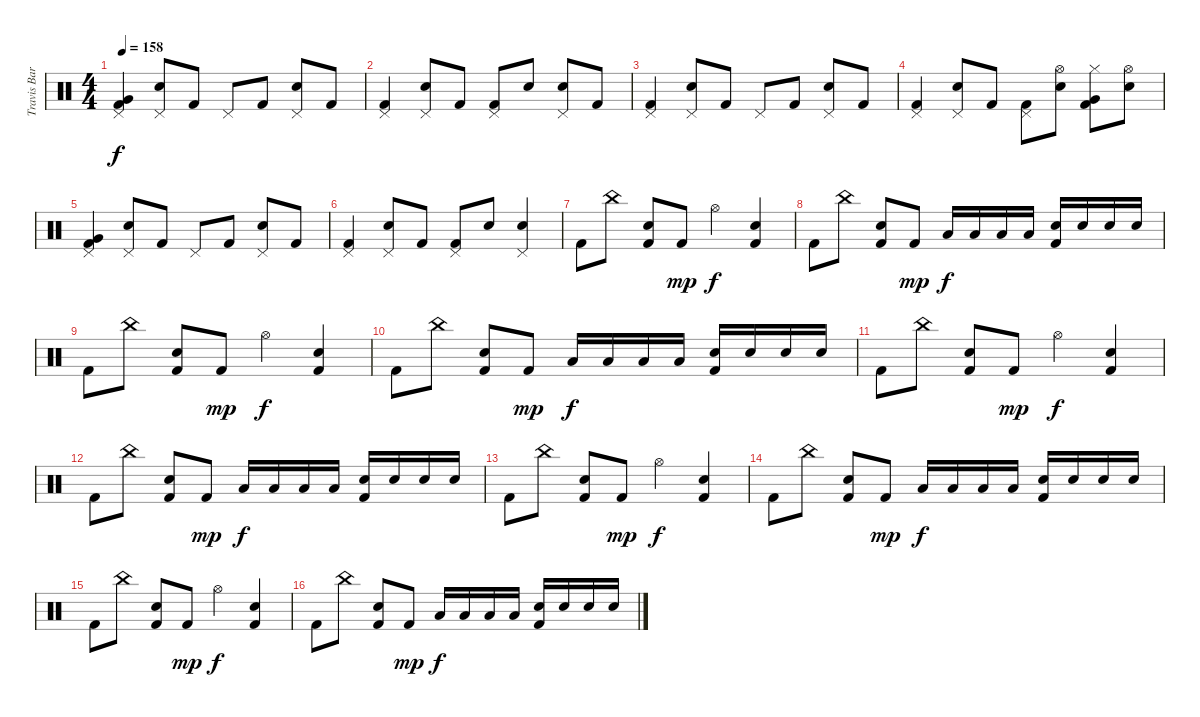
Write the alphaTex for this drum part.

\track ("Travis Barker - Drums" "Travis Bar") {instrument percussion}
\staff {score}
\articulation defaults
\ts (4 4)
\tempo 158
\clef neutral
\ks c
("Pedal Hi-Hat (hit)" "Very Low Tom (hit)" "Kick (hit) 2").4{dy f} ("Pedal Hi-Hat (hit)" "Electric Snare (hit)").8 "Kick (hit) 2".8 "Pedal Hi-Hat (hit)".8 "Kick (hit) 2".8 ("Pedal Hi-Hat (hit)" "Electric Snare (hit)").8 "Kick (hit) 2".8 |
("Pedal Hi-Hat (hit)" "Kick (hit) 2").4 ("Pedal Hi-Hat (hit)" "Electric Snare (hit)").8 "Kick (hit) 2".8 ("Pedal Hi-Hat (hit)" "Kick (hit) 2").8 "Electric Snare (hit)".8 ("Pedal Hi-Hat (hit)" "Electric Snare (hit)").8 "Kick (hit) 2".8 |
("Pedal Hi-Hat (hit)" "Kick (hit) 2").4 ("Pedal Hi-Hat (hit)" "Electric Snare (hit)").8 "Kick (hit) 2".8 "Pedal Hi-Hat (hit)".8 "Kick (hit) 2".8 ("Pedal Hi-Hat (hit)" "Electric Snare (hit)").8 "Kick (hit) 2".8 |
("Pedal Hi-Hat (hit)" "Kick (hit) 2").4 ("Pedal Hi-Hat (hit)" "Electric Snare (hit)").8 "Kick (hit) 2".8 ("Pedal Hi-Hat (hit)" "Kick (hit) 2").8 ("Hi-Hat (open)" "Electric Snare (hit)").8 ("Hi-Hat (closed)" "Very Low Tom (hit)" "Kick (hit) 2").8 ("Hi-Hat (open)" "Electric Snare (hit)").8 |
("Pedal Hi-Hat (hit)" "Very Low Tom (hit)" "Kick (hit) 2").4 ("Pedal Hi-Hat (hit)" "Electric Snare (hit)").8 "Kick (hit) 2".8 "Pedal Hi-Hat (hit)".8 "Kick (hit) 2".8 ("Pedal Hi-Hat (hit)" "Electric Snare (hit)").8 "Kick (hit) 2".8 |
("Pedal Hi-Hat (hit)" "Kick (hit) 2").4 ("Pedal Hi-Hat (hit)" "Electric Snare (hit)").8 "Kick (hit) 2".8 ("Pedal Hi-Hat (hit)" "Kick (hit) 2").8 "Electric Snare (hit)".8 ("Pedal Hi-Hat (hit)" "Electric Snare (hit)").4 |
"Kick (hit) 2".8 "China (hit)".8 ("Electric Snare (hit)" "Kick (hit) 2").8 "Kick (hit) 2".8{dy mp} "Hi-Hat (open)".4{dy f} ("Electric Snare (hit)" "Kick (hit) 2").4 |
"Kick (hit) 2".8 "China (hit)".8 ("Electric Snare (hit)" "Kick (hit) 2").8 "Kick (hit) 2".8{dy mp} "Low Tom (hit)".16{dy f} "Low Tom (hit)".16 "Low Tom (hit)".16 "Low Tom (hit)".16 ("Electric Snare (hit)" "Kick (hit) 2").16 "Electric Snare (hit)".16 "Electric Snare (hit)".16 "Electric Snare (hit)".16 |
"Kick (hit) 2".8 "China (hit)".8 ("Electric Snare (hit)" "Kick (hit) 2").8 "Kick (hit) 2".8{dy mp} "Hi-Hat (open)".4{dy f} ("Electric Snare (hit)" "Kick (hit) 2").4 |
"Kick (hit) 2".8 "China (hit)".8 ("Electric Snare (hit)" "Kick (hit) 2").8 "Kick (hit) 2".8{dy mp} "Low Tom (hit)".16{dy f} "Low Tom (hit)".16 "Low Tom (hit)".16 "Low Tom (hit)".16 ("Electric Snare (hit)" "Kick (hit) 2").16 "Electric Snare (hit)".16 "Electric Snare (hit)".16 "Electric Snare (hit)".16 |
"Kick (hit) 2".8 "China (hit)".8 ("Electric Snare (hit)" "Kick (hit) 2").8 "Kick (hit) 2".8{dy mp} "Hi-Hat (open)".4{dy f} ("Electric Snare (hit)" "Kick (hit) 2").4 |
"Kick (hit) 2".8 "China (hit)".8 ("Electric Snare (hit)" "Kick (hit) 2").8 "Kick (hit) 2".8{dy mp} "Low Tom (hit)".16{dy f} "Low Tom (hit)".16 "Low Tom (hit)".16 "Low Tom (hit)".16 ("Electric Snare (hit)" "Kick (hit) 2").16 "Electric Snare (hit)".16 "Electric Snare (hit)".16 "Electric Snare (hit)".16 |
"Kick (hit) 2".8 "China (hit)".8 ("Electric Snare (hit)" "Kick (hit) 2").8 "Kick (hit) 2".8{dy mp} "Hi-Hat (open)".4{dy f} ("Electric Snare (hit)" "Kick (hit) 2").4 |
"Kick (hit) 2".8 "China (hit)".8 ("Electric Snare (hit)" "Kick (hit) 2").8 "Kick (hit) 2".8{dy mp} "Low Tom (hit)".16{dy f} "Low Tom (hit)".16 "Low Tom (hit)".16 "Low Tom (hit)".16 ("Electric Snare (hit)" "Kick (hit) 2").16 "Electric Snare (hit)".16 "Electric Snare (hit)".16 "Electric Snare (hit)".16 |
"Kick (hit) 2".8 "China (hit)".8 ("Electric Snare (hit)" "Kick (hit) 2").8 "Kick (hit) 2".8{dy mp} "Hi-Hat (open)".4{dy f} ("Electric Snare (hit)" "Kick (hit) 2").4 |
"Kick (hit) 2".8 "China (hit)".8 ("Electric Snare (hit)" "Kick (hit) 2").8 "Kick (hit) 2".8{dy mp} "Low Tom (hit)".16{dy f} "Low Tom (hit)".16 "Low Tom (hit)".16 "Low Tom (hit)".16 ("Electric Snare (hit)" "Kick (hit) 2").16 "Electric Snare (hit)".16 "Electric Snare (hit)".16 "Electric Snare (hit)".16
